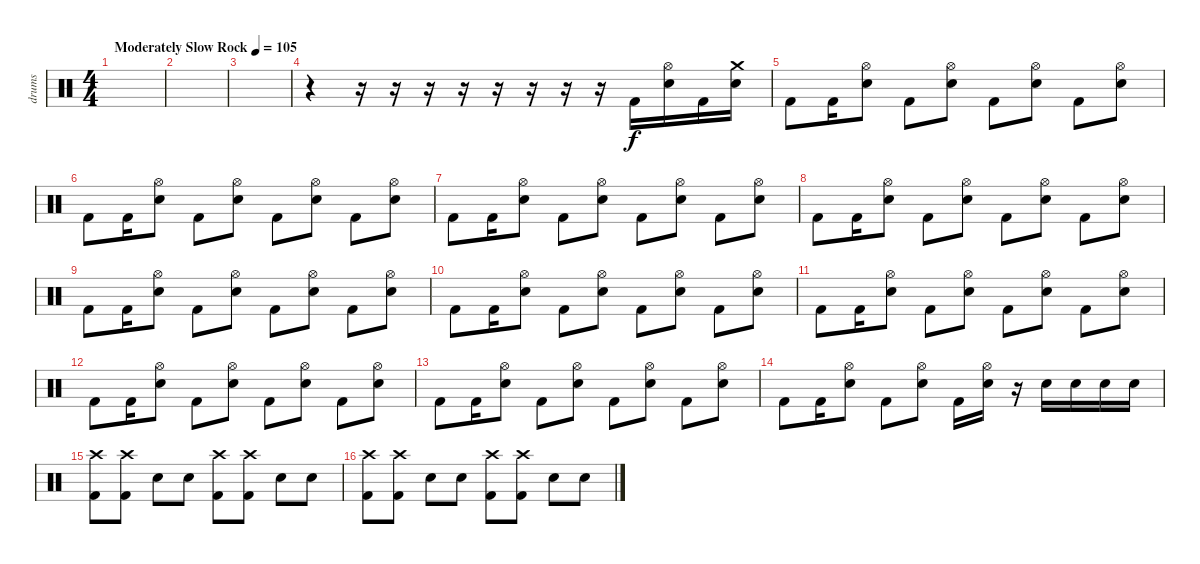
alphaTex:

\track ("drums" "drums") {instrument percussion}
\staff {score}
\articulation defaults
\ts (4 4)
\tempo (105 "Moderately Slow Rock")
\clef neutral
\ks c
|
|
|
r.4 r.16 r.16 r.16 r.16 r.16 r.16 r.16 r.16 "Kick (hit) 2".16 ("Hi-Hat (open)" "Snare (hit) 2").16 "Kick (hit) 2".16 ("Crash medium (hit)" "Snare (hit) 2").16 |
"Kick (hit) 2".8 "Kick (hit) 2".16 ("Hi-Hat (open)" "Snare (hit) 2").8 "Kick (hit) 2".8 ("Hi-Hat (open)" "Snare (hit) 2").8 "Kick (hit) 2".8 ("Hi-Hat (open)" "Snare (hit) 2").8 "Kick (hit) 2".8 ("Hi-Hat (open)" "Snare (hit) 2").8 |
"Kick (hit) 2".8 "Kick (hit) 2".16 ("Hi-Hat (open)" "Snare (hit) 2").8 "Kick (hit) 2".8 ("Hi-Hat (open)" "Snare (hit) 2").8 "Kick (hit) 2".8 ("Hi-Hat (open)" "Snare (hit) 2").8 "Kick (hit) 2".8 ("Hi-Hat (open)" "Snare (hit) 2").8 |
"Kick (hit) 2".8 "Kick (hit) 2".16 ("Hi-Hat (open)" "Snare (hit) 2").8 "Kick (hit) 2".8 ("Hi-Hat (open)" "Snare (hit) 2").8 "Kick (hit) 2".8 ("Hi-Hat (open)" "Snare (hit) 2").8 "Kick (hit) 2".8 ("Hi-Hat (open)" "Snare (hit) 2").8 |
"Kick (hit) 2".8 "Kick (hit) 2".16 ("Hi-Hat (open)" "Snare (hit) 2").8 "Kick (hit) 2".8 ("Hi-Hat (open)" "Snare (hit) 2").8 "Kick (hit) 2".8 ("Hi-Hat (open)" "Snare (hit) 2").8 "Kick (hit) 2".8 ("Hi-Hat (open)" "Snare (hit) 2").8 |
"Kick (hit) 2".8 "Kick (hit) 2".16 ("Hi-Hat (open)" "Snare (hit) 2").8 "Kick (hit) 2".8 ("Hi-Hat (open)" "Snare (hit) 2").8 "Kick (hit) 2".8 ("Hi-Hat (open)" "Snare (hit) 2").8 "Kick (hit) 2".8 ("Hi-Hat (open)" "Snare (hit) 2").8 |
"Kick (hit) 2".8 "Kick (hit) 2".16 ("Hi-Hat (open)" "Snare (hit) 2").8 "Kick (hit) 2".8 ("Hi-Hat (open)" "Snare (hit) 2").8 "Kick (hit) 2".8 ("Hi-Hat (open)" "Snare (hit) 2").8 "Kick (hit) 2".8 ("Hi-Hat (open)" "Snare (hit) 2").8 |
"Kick (hit) 2".8 "Kick (hit) 2".16 ("Hi-Hat (open)" "Snare (hit) 2").8 "Kick (hit) 2".8 ("Hi-Hat (open)" "Snare (hit) 2").8 "Kick (hit) 2".8 ("Hi-Hat (open)" "Snare (hit) 2").8 "Kick (hit) 2".8 ("Hi-Hat (open)" "Snare (hit) 2").8 |
"Kick (hit) 2".8 "Kick (hit) 2".16 ("Hi-Hat (open)" "Snare (hit) 2").8 "Kick (hit) 2".8 ("Hi-Hat (open)" "Snare (hit) 2").8 "Kick (hit) 2".8 ("Hi-Hat (open)" "Snare (hit) 2").8 "Kick (hit) 2".8 ("Hi-Hat (open)" "Snare (hit) 2").8 |
"Kick (hit) 2".8 "Kick (hit) 2".16 ("Hi-Hat (open)" "Snare (hit) 2").8 "Kick (hit) 2".8 ("Hi-Hat (open)" "Snare (hit) 2").8 "Kick (hit) 2".8 ("Hi-Hat (open)" "Snare (hit) 2").8 "Kick (hit) 2".8 ("Hi-Hat (open)" "Snare (hit) 2").8 |
"Kick (hit) 2".8 "Kick (hit) 2".16 ("Hi-Hat (open)" "Snare (hit) 2").8 "Kick (hit) 2".8 ("Hi-Hat (open)" "Snare (hit) 2").8 "Kick (hit) 2".16 ("Hi-Hat (open)" "Snare (hit) 2").16 r.16 "Snare (hit) 2".16 "Snare (hit) 2".16 "Snare (hit) 2".16 "Snare (hit) 2".16 |
("Crash high (hit)" "Kick (hit) 2").8 ("Crash high (hit)" "Kick (hit) 2").8 "Snare (hit) 2".8 "Snare (hit) 2".8 ("Crash high (hit)" "Kick (hit) 2").8 ("Crash high (hit)" "Kick (hit) 2").8 "Snare (hit) 2".8 "Snare (hit) 2".8 |
("Crash high (hit)" "Kick (hit) 2").8 ("Crash high (hit)" "Kick (hit) 2").8 "Snare (hit) 2".8 "Snare (hit) 2".8 ("Crash high (hit)" "Kick (hit) 2").8 ("Crash high (hit)" "Kick (hit) 2").8 "Snare (hit) 2".8 "Snare (hit) 2".8
